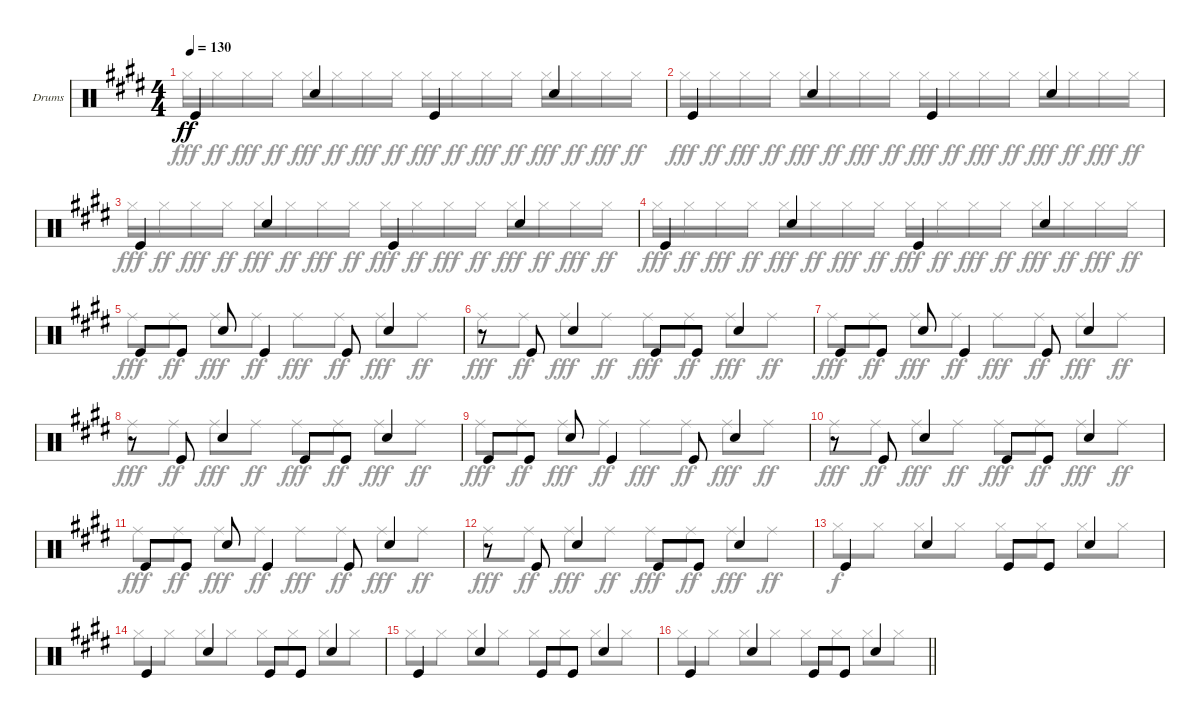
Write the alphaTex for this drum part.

\bracketExtendMode groupsimilarinstruments
\firstSystemTrackNameOrientation horizontal
\otherSystemsTrackNameOrientation horizontal
\track ("Fabrizo Moretti" "Drums") {instrument percussion}
\staff {score}
\articulation defaults
\voice
\ts (4 4)
\tempo 130
\clef neutral
\ks e "Kick (hit)".4{dy ff} "Snare (hit) 2".4 "Kick (hit)".4 "Snare (hit) 2".4
|
"Kick (hit)".4 "Snare (hit) 2".4 "Kick (hit)".4 "Snare (hit) 2".4 |
"Kick (hit)".4 "Snare (hit) 2".4 "Kick (hit)".4 "Snare (hit) 2".4 |
"Kick (hit)".4 "Snare (hit) 2".4 "Kick (hit)".4 "Snare (hit) 2".4 |
"Kick (hit)".8 "Kick (hit)".8 "Snare (hit) 2".8 "Kick (hit)".4 "Kick (hit)".8 "Snare (hit) 2".4 |
r.8 "Kick (hit)".8 "Snare (hit) 2".4 "Kick (hit)".8 "Kick (hit)".8 "Snare (hit) 2".4 |
"Kick (hit)".8 "Kick (hit)".8 "Snare (hit) 2".8 "Kick (hit)".4 "Kick (hit)".8 "Snare (hit) 2".4 |
r.8 "Kick (hit)".8 "Snare (hit) 2".4 "Kick (hit)".8 "Kick (hit)".8 "Snare (hit) 2".4 |
"Kick (hit)".8 "Kick (hit)".8 "Snare (hit) 2".8 "Kick (hit)".4 "Kick (hit)".8 "Snare (hit) 2".4 |
r.8 "Kick (hit)".8 "Snare (hit) 2".4 "Kick (hit)".8 "Kick (hit)".8 "Snare (hit) 2".4 |
"Kick (hit)".8 "Kick (hit)".8 "Snare (hit) 2".8 "Kick (hit)".4 "Kick (hit)".8 "Snare (hit) 2".4 |
r.8 "Kick (hit)".8 "Snare (hit) 2".4 "Kick (hit)".8 "Kick (hit)".8 "Snare (hit) 2".4 |
"Kick (hit)".4 "Snare (hit) 2".4 "Kick (hit)".8 "Kick (hit)".8 "Snare (hit) 2".4 |
"Kick (hit)".4 "Snare (hit) 2".4 "Kick (hit)".8 "Kick (hit)".8 "Snare (hit) 2".4 |
"Kick (hit)".4 "Snare (hit) 2".4 "Kick (hit)".8 "Kick (hit)".8 "Snare (hit) 2".4 |
\barLineRight lightlight "Kick (hit)".4 "Snare (hit) 2".4 "Kick (hit)".8 "Kick (hit)".8 "Snare (hit) 2".4
\voice
\clef neutral
\ottava regular
\simile none
\ks e "Hi-Hat (closed)".16{dy fff} "Hi-Hat (closed)".16{dy ff} "Hi-Hat (closed)".16{dy fff} "Hi-Hat (closed)".16{dy ff} "Hi-Hat (closed)".16{dy fff} "Hi-Hat (closed)".16{dy ff} "Hi-Hat (closed)".16{dy fff} "Hi-Hat (closed)".16{dy ff} "Hi-Hat (closed)".16{dy fff} "Hi-Hat (closed)".16{dy ff} "Hi-Hat (closed)".16{dy fff} "Hi-Hat (closed)".16{dy ff} "Hi-Hat (closed)".16{dy fff} "Hi-Hat (closed)".16{dy ff} "Hi-Hat (closed)".16{dy fff} "Hi-Hat (closed)".16{dy ff}
|
"Hi-Hat (closed)".16{dy fff} "Hi-Hat (closed)".16{dy ff} "Hi-Hat (closed)".16{dy fff} "Hi-Hat (closed)".16{dy ff} "Hi-Hat (closed)".16{dy fff} "Hi-Hat (closed)".16{dy ff} "Hi-Hat (closed)".16{dy fff} "Hi-Hat (closed)".16{dy ff} "Hi-Hat (closed)".16{dy fff} "Hi-Hat (closed)".16{dy ff} "Hi-Hat (closed)".16{dy fff} "Hi-Hat (closed)".16{dy ff} "Hi-Hat (closed)".16{dy fff} "Hi-Hat (closed)".16{dy ff} "Hi-Hat (closed)".16{dy fff} "Hi-Hat (closed)".16{dy ff} |
"Hi-Hat (closed)".16{dy fff} "Hi-Hat (closed)".16{dy ff} "Hi-Hat (closed)".16{dy fff} "Hi-Hat (closed)".16{dy ff} "Hi-Hat (closed)".16{dy fff} "Hi-Hat (closed)".16{dy ff} "Hi-Hat (closed)".16{dy fff} "Hi-Hat (closed)".16{dy ff} "Hi-Hat (closed)".16{dy fff} "Hi-Hat (closed)".16{dy ff} "Hi-Hat (closed)".16{dy fff} "Hi-Hat (closed)".16{dy ff} "Hi-Hat (closed)".16{dy fff} "Hi-Hat (closed)".16{dy ff} "Hi-Hat (closed)".16{dy fff} "Hi-Hat (closed)".16{dy ff} |
"Hi-Hat (closed)".16{dy fff} "Hi-Hat (closed)".16{dy ff} "Hi-Hat (closed)".16{dy fff} "Hi-Hat (closed)".16{dy ff} "Hi-Hat (closed)".16{dy fff} "Hi-Hat (closed)".16{dy ff} "Hi-Hat (closed)".16{dy fff} "Hi-Hat (closed)".16{dy ff} "Hi-Hat (closed)".16{dy fff} "Hi-Hat (closed)".16{dy ff} "Hi-Hat (closed)".16{dy fff} "Hi-Hat (closed)".16{dy ff} "Hi-Hat (closed)".16{dy fff} "Hi-Hat (closed)".16{dy ff} "Hi-Hat (closed)".16{dy fff} "Hi-Hat (closed)".16{dy ff} |
"Ride (middle)".8{dy fff} "Ride (middle)".8{dy ff} "Ride (middle)".8{dy fff} "Ride (middle)".8{dy ff} "Ride (middle)".8{dy fff} "Ride (middle)".8{dy ff} "Ride (middle)".8{dy fff} "Ride (middle)".8{dy ff} |
"Ride (middle)".8{dy fff} "Ride (middle)".8{dy ff} "Ride (middle)".8{dy fff} "Ride (middle)".8{dy ff} "Ride (middle)".8{dy fff} "Ride (middle)".8{dy ff} "Ride (middle)".8{dy fff} "Ride (middle)".8{dy ff} |
"Ride (middle)".8{dy fff} "Ride (middle)".8{dy ff} "Ride (middle)".8{dy fff} "Ride (middle)".8{dy ff} "Ride (middle)".8{dy fff} "Ride (middle)".8{dy ff} "Ride (middle)".8{dy fff} "Ride (middle)".8{dy ff} |
"Ride (middle)".8{dy fff} "Ride (middle)".8{dy ff} "Ride (middle)".8{dy fff} "Ride (middle)".8{dy ff} "Ride (middle)".8{dy fff} "Ride (middle)".8{dy ff} "Ride (middle)".8{dy fff} "Ride (middle)".8{dy ff} |
"Ride (middle)".8{dy fff} "Ride (middle)".8{dy ff} "Ride (middle)".8{dy fff} "Ride (middle)".8{dy ff} "Ride (middle)".8{dy fff} "Ride (middle)".8{dy ff} "Ride (middle)".8{dy fff} "Ride (middle)".8{dy ff} |
"Ride (middle)".8{dy fff} "Ride (middle)".8{dy ff} "Ride (middle)".8{dy fff} "Ride (middle)".8{dy ff} "Ride (middle)".8{dy fff} "Ride (middle)".8{dy ff} "Ride (middle)".8{dy fff} "Ride (middle)".8{dy ff} |
"Ride (middle)".8{dy fff} "Ride (middle)".8{dy ff} "Ride (middle)".8{dy fff} "Ride (middle)".8{dy ff} "Ride (middle)".8{dy fff} "Ride (middle)".8{dy ff} "Ride (middle)".8{dy fff} "Ride (middle)".8{dy ff} |
"Ride (middle)".8{dy fff} "Ride (middle)".8{dy ff} "Ride (middle)".8{dy fff} "Ride (middle)".8{dy ff} "Ride (middle)".8{dy fff} "Ride (middle)".8{dy ff} "Ride (middle)".8{dy fff} "Ride (middle)".8{dy ff} |
"Hi-Hat (closed)".8{dy f} "Hi-Hat (closed)".8 "Hi-Hat (closed)".8 "Hi-Hat (closed)".8 "Hi-Hat (closed)".8 "Hi-Hat (closed)".8 "Hi-Hat (closed)".8 "Hi-Hat (closed)".8 |
"Hi-Hat (closed)".8 "Hi-Hat (closed)".8 "Hi-Hat (closed)".8 "Hi-Hat (closed)".8 "Hi-Hat (closed)".8 "Hi-Hat (closed)".8 "Hi-Hat (closed)".8 "Hi-Hat (closed)".8 |
"Hi-Hat (closed)".8 "Hi-Hat (closed)".8 "Hi-Hat (closed)".8 "Hi-Hat (closed)".8 "Hi-Hat (closed)".8 "Hi-Hat (closed)".8 "Hi-Hat (closed)".8 "Hi-Hat (closed)".8 |
\barLineRight lightlight "Hi-Hat (closed)".8 "Hi-Hat (closed)".8 "Hi-Hat (closed)".8 "Hi-Hat (closed)".8 "Hi-Hat (closed)".8 "Hi-Hat (closed)".8 "Hi-Hat (closed)".8 "Hi-Hat (closed)".8
